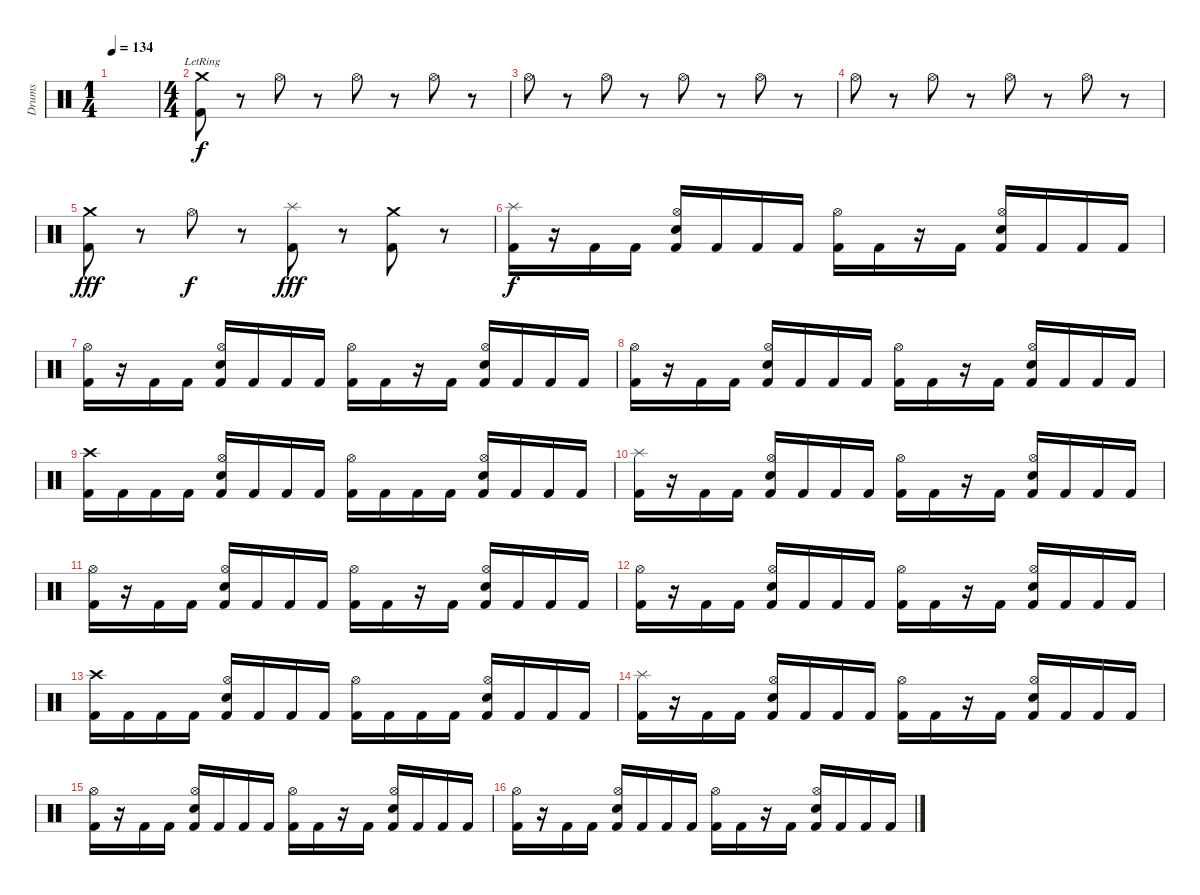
\track ("Drums" "Drums") {instrument percussion}
\staff {score}
\articulation defaults
\ts (1 4)
\tempo 134
\clef neutral
\ks c
|
\ts (4 4)
("Crash medium (hit)"{lr} "Kick (hit) 2").8 r.8 "Hi-Hat (open)".8{dy f} r.8 "Hi-Hat (open)".8 r.8 "Hi-Hat (open)".8 r.8 |
"Hi-Hat (open)".8 r.8 "Hi-Hat (open)".8 r.8 "Hi-Hat (open)".8 r.8 "Hi-Hat (open)".8 r.8 |
"Hi-Hat (open)".8 r.8 "Hi-Hat (open)".8 r.8 "Hi-Hat (open)".8 r.8 "Hi-Hat (open)".8 r.8 |
("Crash medium (hit)" "Kick (hit) 2").8{dy fff} r.8 "Hi-Hat (open)".8{dy f} r.8 ("Splash (hit)" "Kick (hit) 2").8{dy fff} r.8 ("Crash medium (hit)" "Kick (hit) 2").8 r.8 |
("Splash (hit)" "Kick (hit) 2").16{dy f} r.16 "Kick (hit) 2".16 "Kick (hit) 2".16 ("Hi-Hat (open)" "Snare (hit) 2" "Kick (hit) 2").16 "Kick (hit) 2".16 "Kick (hit) 2".16 "Kick (hit) 2".16 ("Hi-Hat (open)" "Kick (hit) 2").16 "Kick (hit) 2".16 r.16 "Kick (hit) 2".16 ("Hi-Hat (open)" "Snare (hit) 2" "Kick (hit) 2").16 "Kick (hit) 2".16 "Kick (hit) 2".16 "Kick (hit) 2".16 |
("Hi-Hat (open)" "Kick (hit) 2").16 r.16 "Kick (hit) 2".16 "Kick (hit) 2".16 ("Hi-Hat (open)" "Snare (hit) 2" "Kick (hit) 2").16 "Kick (hit) 2".16 "Kick (hit) 2".16 "Kick (hit) 2".16 ("Hi-Hat (open)" "Kick (hit) 2").16 "Kick (hit) 2".16 r.16 "Kick (hit) 2".16 ("Hi-Hat (open)" "Snare (hit) 2" "Kick (hit) 2").16 "Kick (hit) 2".16 "Kick (hit) 2".16 "Kick (hit) 2".16 |
("Hi-Hat (open)" "Kick (hit) 2").16 r.16 "Kick (hit) 2".16 "Kick (hit) 2".16 ("Hi-Hat (open)" "Snare (hit) 2" "Kick (hit) 2").16 "Kick (hit) 2".16 "Kick (hit) 2".16 "Kick (hit) 2".16 ("Hi-Hat (open)" "Kick (hit) 2").16 "Kick (hit) 2".16 r.16 "Kick (hit) 2".16 ("Hi-Hat (open)" "Snare (hit) 2" "Kick (hit) 2").16 "Kick (hit) 2".16 "Kick (hit) 2".16 "Kick (hit) 2".16 |
("Crash high (hit)" "Kick (hit) 2").16 "Kick (hit) 2".16 "Kick (hit) 2".16 "Kick (hit) 2".16 ("Hi-Hat (open)" "Snare (hit) 2" "Kick (hit) 2").16 "Kick (hit) 2".16 "Kick (hit) 2".16 "Kick (hit) 2".16 ("Hi-Hat (open)" "Kick (hit) 2").16 "Kick (hit) 2".16 "Kick (hit) 2".16 "Kick (hit) 2".16 ("Hi-Hat (open)" "Snare (hit) 2" "Kick (hit) 2").16 "Kick (hit) 2".16 "Kick (hit) 2".16 "Kick (hit) 2".16 |
("Splash (hit)" "Kick (hit) 2").16 r.16 "Kick (hit) 2".16 "Kick (hit) 2".16 ("Hi-Hat (open)" "Snare (hit) 2" "Kick (hit) 2").16 "Kick (hit) 2".16 "Kick (hit) 2".16 "Kick (hit) 2".16 ("Hi-Hat (open)" "Kick (hit) 2").16 "Kick (hit) 2".16 r.16 "Kick (hit) 2".16 ("Hi-Hat (open)" "Snare (hit) 2" "Kick (hit) 2").16 "Kick (hit) 2".16 "Kick (hit) 2".16 "Kick (hit) 2".16 |
("Hi-Hat (open)" "Kick (hit) 2").16 r.16 "Kick (hit) 2".16 "Kick (hit) 2".16 ("Hi-Hat (open)" "Snare (hit) 2" "Kick (hit) 2").16 "Kick (hit) 2".16 "Kick (hit) 2".16 "Kick (hit) 2".16 ("Hi-Hat (open)" "Kick (hit) 2").16 "Kick (hit) 2".16 r.16 "Kick (hit) 2".16 ("Hi-Hat (open)" "Snare (hit) 2" "Kick (hit) 2").16 "Kick (hit) 2".16 "Kick (hit) 2".16 "Kick (hit) 2".16 |
("Hi-Hat (open)" "Kick (hit) 2").16 r.16 "Kick (hit) 2".16 "Kick (hit) 2".16 ("Hi-Hat (open)" "Snare (hit) 2" "Kick (hit) 2").16 "Kick (hit) 2".16 "Kick (hit) 2".16 "Kick (hit) 2".16 ("Hi-Hat (open)" "Kick (hit) 2").16 "Kick (hit) 2".16 r.16 "Kick (hit) 2".16 ("Hi-Hat (open)" "Snare (hit) 2" "Kick (hit) 2").16 "Kick (hit) 2".16 "Kick (hit) 2".16 "Kick (hit) 2".16 |
("Crash high (hit)" "Kick (hit) 2").16 "Kick (hit) 2".16 "Kick (hit) 2".16 "Kick (hit) 2".16 ("Hi-Hat (open)" "Snare (hit) 2" "Kick (hit) 2").16 "Kick (hit) 2".16 "Kick (hit) 2".16 "Kick (hit) 2".16 ("Hi-Hat (open)" "Kick (hit) 2").16 "Kick (hit) 2".16 "Kick (hit) 2".16 "Kick (hit) 2".16 ("Hi-Hat (open)" "Snare (hit) 2" "Kick (hit) 2").16 "Kick (hit) 2".16 "Kick (hit) 2".16 "Kick (hit) 2".16 |
("Splash (hit)" "Kick (hit) 2").16 r.16 "Kick (hit) 2".16 "Kick (hit) 2".16 ("Hi-Hat (open)" "Snare (hit) 2" "Kick (hit) 2").16 "Kick (hit) 2".16 "Kick (hit) 2".16 "Kick (hit) 2".16 ("Hi-Hat (open)" "Kick (hit) 2").16 "Kick (hit) 2".16 r.16 "Kick (hit) 2".16 ("Hi-Hat (open)" "Snare (hit) 2" "Kick (hit) 2").16 "Kick (hit) 2".16 "Kick (hit) 2".16 "Kick (hit) 2".16 |
("Hi-Hat (open)" "Kick (hit) 2").16 r.16 "Kick (hit) 2".16 "Kick (hit) 2".16 ("Hi-Hat (open)" "Snare (hit) 2" "Kick (hit) 2").16 "Kick (hit) 2".16 "Kick (hit) 2".16 "Kick (hit) 2".16 ("Hi-Hat (open)" "Kick (hit) 2").16 "Kick (hit) 2".16 r.16 "Kick (hit) 2".16 ("Hi-Hat (open)" "Snare (hit) 2" "Kick (hit) 2").16 "Kick (hit) 2".16 "Kick (hit) 2".16 "Kick (hit) 2".16 |
("Hi-Hat (open)" "Kick (hit) 2").16 r.16 "Kick (hit) 2".16 "Kick (hit) 2".16 ("Hi-Hat (open)" "Snare (hit) 2" "Kick (hit) 2").16 "Kick (hit) 2".16 "Kick (hit) 2".16 "Kick (hit) 2".16 ("Hi-Hat (open)" "Kick (hit) 2").16 "Kick (hit) 2".16 r.16 "Kick (hit) 2".16 ("Hi-Hat (open)" "Snare (hit) 2" "Kick (hit) 2").16 "Kick (hit) 2".16 "Kick (hit) 2".16 "Kick (hit) 2".16
